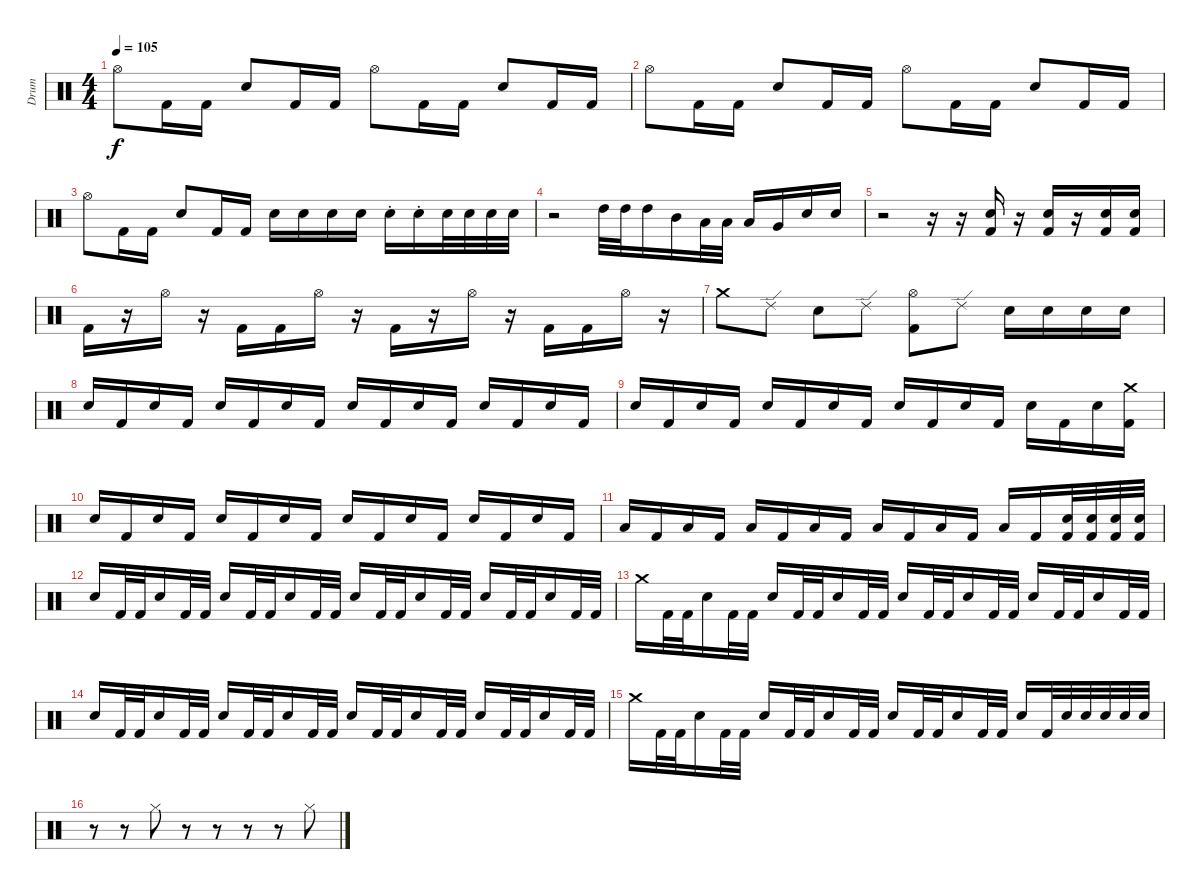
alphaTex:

\track ("Drum" "Drum") {instrument percussion}
\staff {score}
\articulation defaults
\ts (4 4)
\tempo 105
\clef neutral
\ks c "Hi-Hat (open)".8{dy f} "Kick (hit) 2".16 "Kick (hit) 2".16 "Snare (hit) 2".8 "Kick (hit) 2".16 "Kick (hit) 2".16 "Hi-Hat (open)".8 "Kick (hit) 2".16 "Kick (hit) 2".16 "Snare (hit) 2".8 "Kick (hit) 2".16 "Kick (hit) 2".16
|
"Hi-Hat (open)".8 "Kick (hit) 2".16 "Kick (hit) 2".16 "Snare (hit) 2".8 "Kick (hit) 2".16 "Kick (hit) 2".16 "Hi-Hat (open)".8 "Kick (hit) 2".16 "Kick (hit) 2".16 "Snare (hit) 2".8 "Kick (hit) 2".16 "Kick (hit) 2".16 |
"Hi-Hat (open)".8 "Kick (hit) 2".16 "Kick (hit) 2".16 "Snare (hit) 2".8 "Kick (hit) 2".16 "Kick (hit) 2".16 "Electric Snare (hit)".16 "Electric Snare (hit)".16 "Electric Snare (hit)".16 "Electric Snare (hit)".16 "Electric Snare (hit)"{st}.16 "Electric Snare (hit)"{st}.16 "Electric Snare (hit)".32 "Electric Snare (hit)".32 "Electric Snare (hit)".32 "Electric Snare (hit)".32 |
r.2 "High Tom (hit)".32 "High Tom (hit)".32 "High Tom (hit)".16 "Mid Tom (hit)".16 "Low Tom (hit)".32 "Low Tom (hit)".32 "Low Tom (hit)".16 "Very Low Tom (hit)".16 "Electric Snare (hit)".16 "Electric Snare (hit)".16 |
r.2 r.16 r.16 ("Electric Snare (hit)" "Kick (hit) 2").16 r.16 ("Electric Snare (hit)" "Kick (hit) 2").16 r.16 ("Electric Snare (hit)" "Kick (hit) 2").16 ("Electric Snare (hit)" "Kick (hit) 2").16 |
"Kick (hit) 2".16 r.16 "Hi-Hat (open)".16 r.16 "Kick (hit) 2".16 "Kick (hit) 2".16 "Hi-Hat (open)".16 r.16 "Kick (hit) 2".16 r.16 "Hi-Hat (open)".16 r.16 "Kick (hit) 2".16 "Kick (hit) 2".16 "Hi-Hat (open)".16 r.16 |
"Crash medium (hit)".8 "Ride (edge) 2".8 "Snare (hit) 2".8 "Ride (edge) 2".8 ("Hi-Hat (open)" "Kick (hit) 2").8 "Ride (edge) 2".8 "Electric Snare (hit)".16 "Electric Snare (hit)".16 "Electric Snare (hit)".16 "Electric Snare (hit)".16 |
"Electric Snare (hit)".16 "Kick (hit) 2".16 "Electric Snare (hit)".16 "Kick (hit) 2".16 "Electric Snare (hit)".16 "Kick (hit) 2".16 "Electric Snare (hit)".16 "Kick (hit) 2".16 "Electric Snare (hit)".16 "Kick (hit) 2".16 "Electric Snare (hit)".16 "Kick (hit) 2".16 "Electric Snare (hit)".16 "Kick (hit) 2".16 "Electric Snare (hit)".16 "Kick (hit) 2".16 |
"Electric Snare (hit)".16 "Kick (hit) 2".16 "Electric Snare (hit)".16 "Kick (hit) 2".16 "Electric Snare (hit)".16 "Kick (hit) 2".16 "Electric Snare (hit)".16 "Kick (hit) 2".16 "Electric Snare (hit)".16 "Kick (hit) 2".16 "Electric Snare (hit)".16 "Kick (hit) 2".16 "Electric Snare (hit)".16 "Kick (hit) 2".16 "Electric Snare (hit)".16 ("Crash medium (hit)" "Kick (hit) 2").16 |
"Electric Snare (hit)".16 "Kick (hit) 2".16 "Electric Snare (hit)".16 "Kick (hit) 2".16 "Electric Snare (hit)".16 "Kick (hit) 2".16 "Electric Snare (hit)".16 "Kick (hit) 2".16 "Electric Snare (hit)".16 "Kick (hit) 2".16 "Electric Snare (hit)".16 "Kick (hit) 2".16 "Electric Snare (hit)".16 "Kick (hit) 2".16 "Electric Snare (hit)".16 "Kick (hit) 2".16 |
"Low Floor Tom (hit)".16 "Kick (hit) 2".16 "Low Floor Tom (hit)".16 "Kick (hit) 2".16 "Low Floor Tom (hit)".16 "Kick (hit) 2".16 "Low Floor Tom (hit)".16 "Kick (hit) 2".16 "Low Floor Tom (hit)".16 "Kick (hit) 2".16 "Low Floor Tom (hit)".16 "Kick (hit) 2".16 "Low Floor Tom (hit)".16 "Kick (hit) 2".16 ("Electric Snare (hit)" "Kick (hit) 2").32 ("Electric Snare (hit)" "Kick (hit) 2").32 ("Electric Snare (hit)" "Kick (hit) 2").32 ("Electric Snare (hit)" "Kick (hit) 2").32 |
"Electric Snare (hit)".16 "Kick (hit) 2".32 "Kick (hit) 2".32 "Electric Snare (hit)".16 "Kick (hit) 2".32 "Kick (hit) 2".32 "Electric Snare (hit)".16 "Kick (hit) 2".32 "Kick (hit) 2".32 "Electric Snare (hit)".16 "Kick (hit) 2".32 "Kick (hit) 2".32 "Electric Snare (hit)".16 "Kick (hit) 2".32 "Kick (hit) 2".32 "Electric Snare (hit)".16 "Kick (hit) 2".32 "Kick (hit) 2".32 "Electric Snare (hit)".16 "Kick (hit) 2".32 "Kick (hit) 2".32 "Electric Snare (hit)".16 "Kick (hit) 2".32 "Kick (hit) 2".32 |
"Crash medium (hit)".16 "Kick (hit) 2".32 "Kick (hit) 2".32 "Electric Snare (hit)".16 "Kick (hit) 2".32 "Kick (hit) 2".32 "Electric Snare (hit)".16 "Kick (hit) 2".32 "Kick (hit) 2".32 "Electric Snare (hit)".16 "Kick (hit) 2".32 "Kick (hit) 2".32 "Electric Snare (hit)".16 "Kick (hit) 2".32 "Kick (hit) 2".32 "Electric Snare (hit)".16 "Kick (hit) 2".32 "Kick (hit) 2".32 "Electric Snare (hit)".16 "Kick (hit) 2".32 "Kick (hit) 2".32 "Electric Snare (hit)".16 "Kick (hit) 2".32 "Kick (hit) 2".32 |
"Electric Snare (hit)".16 "Kick (hit) 2".32 "Kick (hit) 2".32 "Electric Snare (hit)".16 "Kick (hit) 2".32 "Kick (hit) 2".32 "Electric Snare (hit)".16 "Kick (hit) 2".32 "Kick (hit) 2".32 "Electric Snare (hit)".16 "Kick (hit) 2".32 "Kick (hit) 2".32 "Electric Snare (hit)".16 "Kick (hit) 2".32 "Kick (hit) 2".32 "Electric Snare (hit)".16 "Kick (hit) 2".32 "Kick (hit) 2".32 "Electric Snare (hit)".16 "Kick (hit) 2".32 "Kick (hit) 2".32 "Electric Snare (hit)".16 "Kick (hit) 2".32 "Kick (hit) 2".32 |
"Crash medium (hit)".16 "Kick (hit) 2".32 "Kick (hit) 2".32 "Electric Snare (hit)".16 "Kick (hit) 2".32 "Kick (hit) 2".32 "Electric Snare (hit)".16 "Kick (hit) 2".32 "Kick (hit) 2".32 "Electric Snare (hit)".16 "Kick (hit) 2".32 "Kick (hit) 2".32 "Electric Snare (hit)".16 "Kick (hit) 2".32 "Kick (hit) 2".32 "Electric Snare (hit)".16 "Kick (hit) 2".32 "Kick (hit) 2".32 "Electric Snare (hit)".16 "Kick (hit) 2".32 "Electric Snare (hit)".32 "Electric Snare (hit)".32 "Electric Snare (hit)".32 "Electric Snare (hit)".32 "Electric Snare (hit)".32 |
r.8 r.8 "Hi-Hat (closed)".8 r.8 r.8 r.8 r.8 "Hi-Hat (closed)".8
